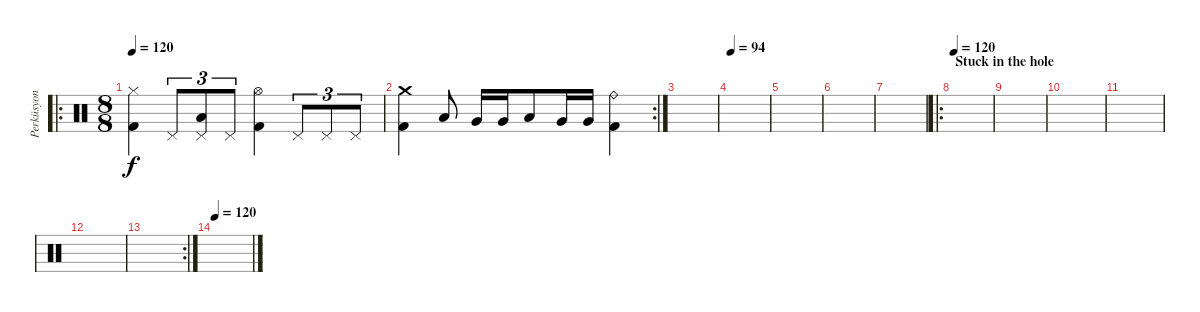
\track ("Perküsyon" "Perküsyon") {instrument percussion}
\staff {score}
\articulation defaults
\ro
\ts (8 8)
\tempo 120
\clef neutral
\ks c
("Kick (hit) 2" "Hi-Hat (closed)").4{dy f} "Pedal Hi-Hat (hit)".8{tu (3 2)} ("Pedal Hi-Hat (hit)" "Low Tom (hit)").8{tu (3 2)} "Pedal Hi-Hat (hit)".8{tu (3 2)} ("Hi-Hat (open)" "Kick (hit) 2").4 "Pedal Hi-Hat (hit)".8{tu (3 2)} "Pedal Hi-Hat (hit)".8{tu (3 2)} "Pedal Hi-Hat (hit)".8{tu (3 2)} |
\rc 2
("Kick (hit) 2" "Crash medium (hit)").4 "Low Tom (hit)".8 "Very Low Tom (hit)".16 "Very Low Tom (hit)".16 "Low Tom (hit)".8 "Very Low Tom (hit)".16 "Very Low Tom (hit)".16 ("Ride (bell)" "Kick (hit) 2").4 |
|
\tempo 94
|
|
|
|
\ro
\section ("" "Stuck in the hole")
\tempo 120
|
|
|
|
|
\rc 2
|
\tempo 120
